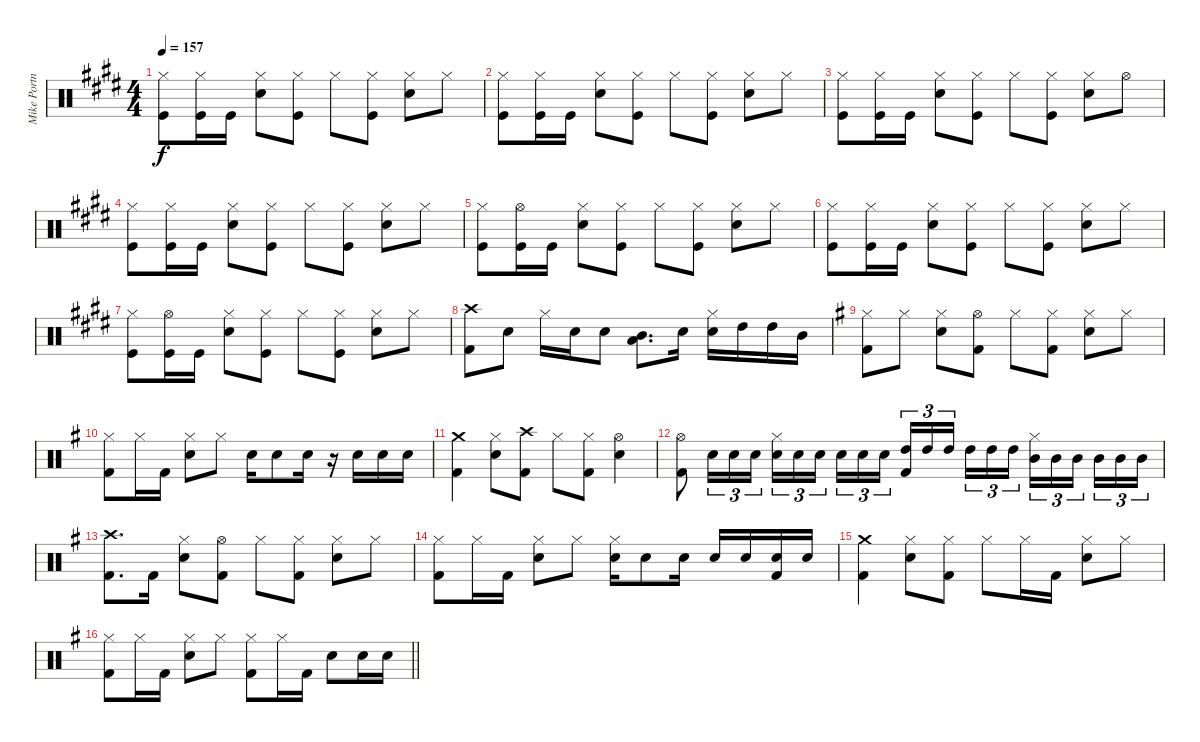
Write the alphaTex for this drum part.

\track ("Mike Portnoy" "Mike Portn") {instrument percussion}
\staff {score}
\articulation defaults
\ts (4 4)
\tempo 157
\clef neutral
\ks e
("Kick (hit)" "Hi-Hat (closed)").8{dy f} ("Kick (hit)" "Hi-Hat (closed)").16 "Kick (hit)".16 ("Snare (hit) 2" "Hi-Hat (closed)").8 ("Kick (hit)" "Hi-Hat (closed)").8 "Hi-Hat (closed)".8 ("Kick (hit)" "Hi-Hat (closed)").8 ("Snare (hit) 2" "Hi-Hat (closed)").8 "Hi-Hat (closed)".8 |
\ks c#minor
("Kick (hit)" "Hi-Hat (closed)").8 ("Kick (hit)" "Hi-Hat (closed)").16 "Kick (hit)".16 ("Snare (hit) 2" "Hi-Hat (closed)").8 ("Kick (hit)" "Hi-Hat (closed)").8 "Hi-Hat (closed)".8 ("Kick (hit)" "Hi-Hat (closed)").8 ("Snare (hit) 2" "Hi-Hat (closed)").8 "Hi-Hat (closed)".8 |
("Kick (hit)" "Hi-Hat (closed)").8 ("Kick (hit)" "Hi-Hat (closed)").16 "Kick (hit)".16 ("Snare (hit) 2" "Hi-Hat (closed)").8 ("Kick (hit)" "Hi-Hat (closed)").8 "Hi-Hat (closed)".8 ("Kick (hit)" "Hi-Hat (closed)").8 ("Snare (hit) 2" "Hi-Hat (closed)").8 "Hi-Hat (open)".8 |
("Kick (hit)" "Hi-Hat (closed)").8 ("Kick (hit)" "Hi-Hat (closed)").16 "Kick (hit)".16 ("Snare (hit) 2" "Hi-Hat (closed)").8 ("Kick (hit)" "Hi-Hat (closed)").8 "Hi-Hat (closed)".8 ("Kick (hit)" "Hi-Hat (closed)").8 ("Snare (hit) 2" "Hi-Hat (closed)").8 "Hi-Hat (closed)".8 |
\ks e
("Kick (hit)" "Hi-Hat (closed)").8 ("Kick (hit)" "Hi-Hat (open)").16 "Kick (hit)".16 ("Snare (hit) 2" "Hi-Hat (closed)").8 ("Kick (hit)" "Hi-Hat (closed)").8 "Hi-Hat (closed)".8 ("Kick (hit)" "Hi-Hat (closed)").8 ("Snare (hit) 2" "Hi-Hat (closed)").8 "Hi-Hat (closed)".8 |
\ks c#minor
("Kick (hit)" "Hi-Hat (closed)").8 ("Kick (hit)" "Hi-Hat (closed)").16 "Kick (hit)".16 ("Snare (hit) 2" "Hi-Hat (closed)").8 ("Kick (hit)" "Hi-Hat (closed)").8 "Hi-Hat (closed)".8 ("Kick (hit)" "Hi-Hat (closed)").8 ("Snare (hit) 2" "Hi-Hat (closed)").8 "Hi-Hat (closed)".8 |
\ks e
("Kick (hit)" "Hi-Hat (closed)").8 ("Kick (hit)" "Hi-Hat (open)").16 "Kick (hit)".16 ("Snare (hit) 2" "Hi-Hat (closed)").8 ("Kick (hit)" "Hi-Hat (closed)").8 "Hi-Hat (closed)".8 ("Kick (hit)" "Hi-Hat (closed)").8 ("Snare (hit) 2" "Hi-Hat (closed)").8 "Hi-Hat (closed)".8 |
\ks c#minor
("Kick (hit) 2" "Crash high (hit)").8 "Snare (hit) 2".8 "Hi-Hat (closed)".16 "Snare (hit) 2".16 "Snare (hit) 2".8 ("Mid Tom (hit)" "Low Tom (hit)").8{d} "Snare (hit) 2".16 ("Snare (hit) 2" "Hi-Hat (closed)").16 "High Tom (hit)".16 "High Tom (hit)".16 "Mid Tom (hit)".16 |
\ks g
("Kick (hit) 2" "Hi-Hat (closed)").8 "Hi-Hat (closed)".8 ("Snare (hit) 2" "Hi-Hat (closed)").8 ("Kick (hit) 2" "Hi-Hat (open)").8 "Hi-Hat (closed)".8 ("Kick (hit) 2" "Hi-Hat (closed)").8 ("Snare (hit) 2" "Hi-Hat (closed)").8 "Hi-Hat (closed)".8 |
("Kick (hit) 2" "Hi-Hat (closed)").8 "Hi-Hat (closed)".16 "Kick (hit) 2".16 ("Snare (hit) 2" "Hi-Hat (closed)").8 "Hi-Hat (closed)".8 "Snare (hit) 2".16 "Snare (hit) 2".8 "Snare (hit) 2".16 r.16 "Snare (hit) 2".16 "Snare (hit) 2".16 "Snare (hit) 2".16 |
("Kick (hit) 2" "Crash medium (hit)").4 ("Snare (hit) 2" "Hi-Hat (closed)").8 ("Kick (hit) 2" "Crash high (hit)").8 "Hi-Hat (closed)".8 ("Kick (hit) 2" "Hi-Hat (closed)").8 ("Snare (hit) 2" "Hi-Hat (open)").4 |
("Kick (hit) 2" "Hi-Hat (open)").8 "Snare (hit) 2".16{tu (3 2)} "Snare (hit) 2".16{tu (3 2)} "Snare (hit) 2".16{tu (3 2)} ("Snare (hit) 2" "Hi-Hat (closed)").16{tu (3 2)} "Snare (hit) 2".16{tu (3 2)} "Snare (hit) 2".16{tu (3 2) beam splitsecondary} "Snare (hit) 2".16{tu (3 2)} "Snare (hit) 2".16{tu (3 2)} "Snare (hit) 2".16{tu (3 2)} ("Kick (hit) 2" "High Tom (hit)").16{tu (3 2)} "High Tom (hit)".16{tu (3 2)} "High Tom (hit)".16{tu (3 2) beam splitsecondary} "High Tom (hit)".16{tu (3 2)} "High Tom (hit)".16{tu (3 2)} "High Tom (hit)".16{tu (3 2)} ("Hi-Hat (closed)" "Mid Tom (hit)").16{tu (3 2)} "Mid Tom (hit)".16{tu (3 2)} "Mid Tom (hit)".16{tu (3 2) beam splitsecondary} "Mid Tom (hit)".16{tu (3 2)} "Mid Tom (hit)".16{tu (3 2)} "Mid Tom (hit)".16{tu (3 2)} |
("Kick (hit) 2" "Crash high (hit)").8{d} "Kick (hit) 2".16 ("Snare (hit) 2" "Hi-Hat (closed)").8 ("Kick (hit) 2" "Hi-Hat (open)").8 "Hi-Hat (closed)".8 ("Kick (hit) 2" "Hi-Hat (closed)").8 ("Snare (hit) 2" "Hi-Hat (closed)").8 "Hi-Hat (closed)".8 |
("Kick (hit) 2" "Hi-Hat (closed)").8 "Hi-Hat (closed)".16 "Kick (hit) 2".16 ("Snare (hit) 2" "Hi-Hat (closed)").8 "Hi-Hat (closed)".8 ("Snare (hit) 2" "Hi-Hat (closed)").16 "Snare (hit) 2".8 "Snare (hit) 2".16 "Snare (hit) 2".16 "Snare (hit) 2".16 ("Kick (hit) 2" "Snare (hit) 2").16 "Snare (hit) 2".16 |
("Kick (hit) 2" "Crash medium (hit)").4 ("Snare (hit) 2" "Hi-Hat (closed)").8 ("Kick (hit) 2" "Hi-Hat (closed)").8 "Hi-Hat (closed)".8 "Hi-Hat (closed)".16 "Kick (hit) 2".16 ("Snare (hit) 2" "Hi-Hat (closed)").8 "Hi-Hat (closed)".8 |
\barLineRight lightlight
("Kick (hit) 2" "Hi-Hat (closed)").8 "Hi-Hat (closed)".16 "Kick (hit) 2".16 ("Snare (hit) 2" "Hi-Hat (closed)").8 "Hi-Hat (closed)".8 ("Kick (hit) 2" "Hi-Hat (closed)").8 "Hi-Hat (closed)".16 "Kick (hit) 2".16 "Snare (hit) 2".8 "Snare (hit) 2".16 "Snare (hit) 2".16
